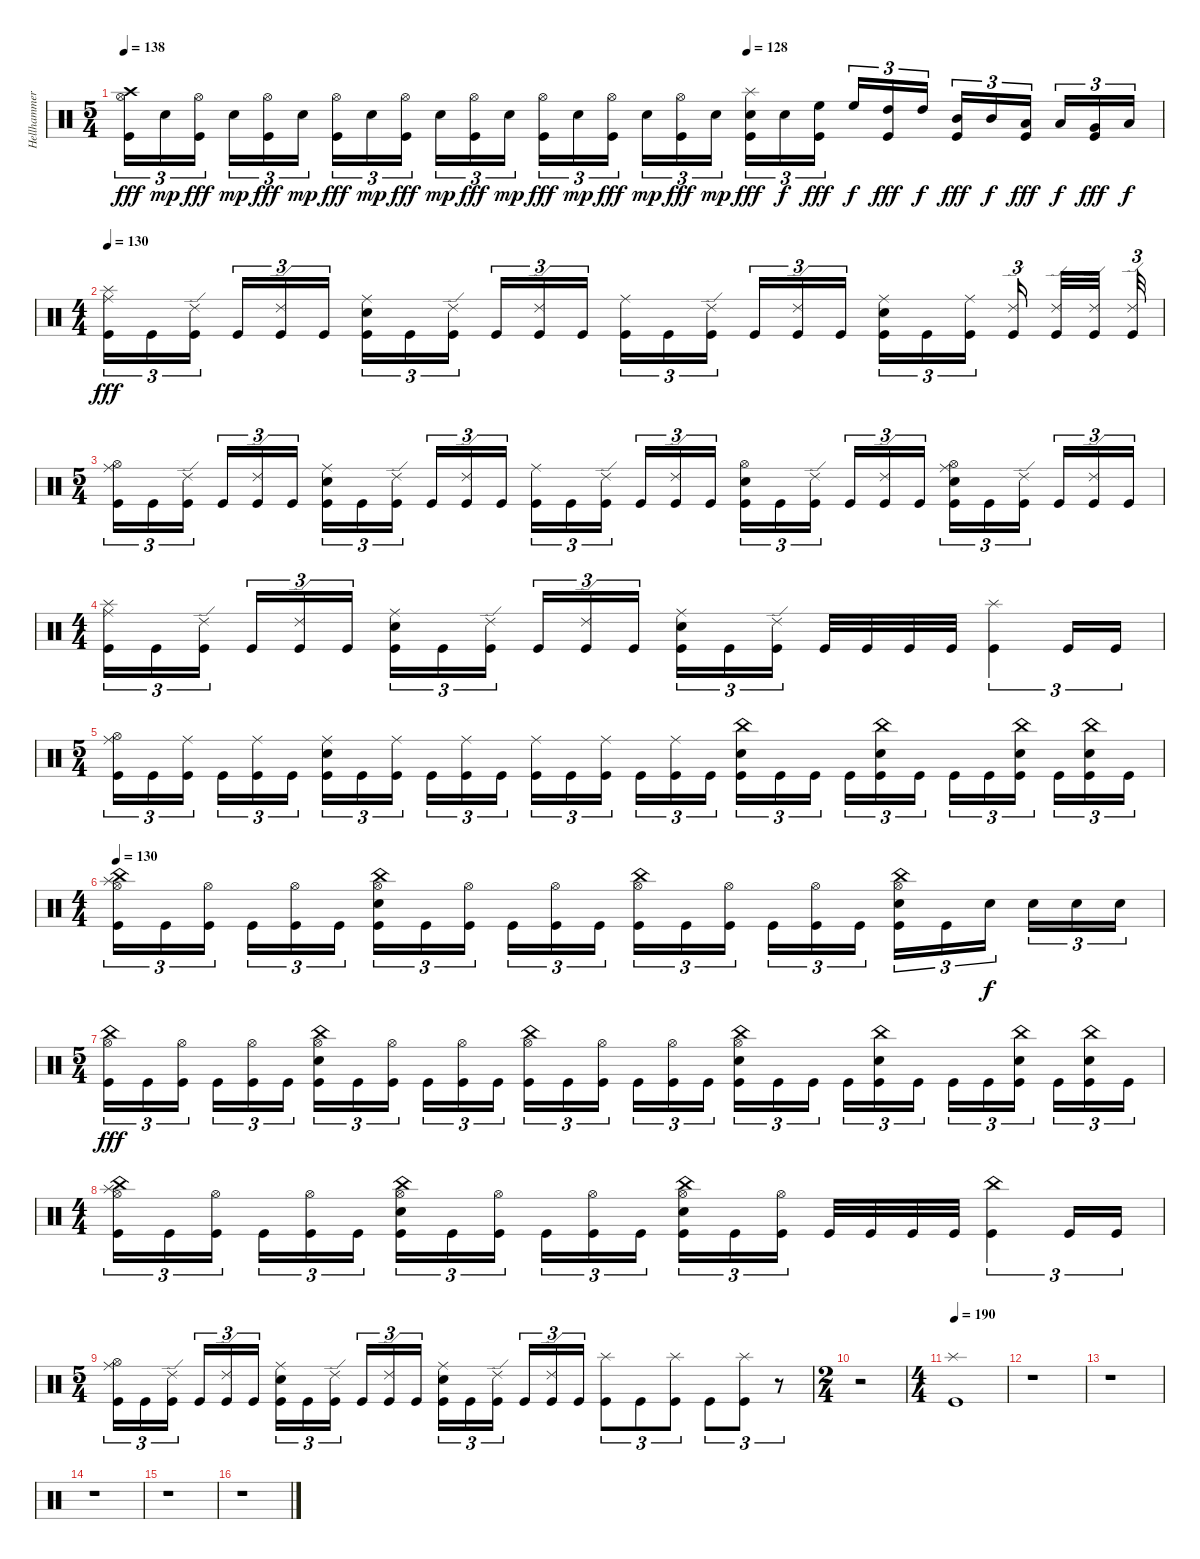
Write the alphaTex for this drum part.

\track ("Hellhammer" "Hellhammer") {instrument percussion}
\staff {score}
\articulation defaults
\ts (5 4)
\tempo 138
\tempo (128 0.6)
\clef neutral
\ks c
("Crash high (hit)" "Hi-Hat (open)" "Kick (hit)").16{tu (3 2) dy fff} "Electric Snare (hit)".16{tu (3 2) dy mp} ("Hi-Hat (open)" "Kick (hit)").16{tu (3 2) dy fff} "Electric Snare (hit)".16{tu (3 2) dy mp} ("Hi-Hat (open)" "Kick (hit)").16{tu (3 2) dy fff} "Electric Snare (hit)".16{tu (3 2) dy mp} ("Hi-Hat (open)" "Kick (hit)").16{tu (3 2) dy fff} "Electric Snare (hit)".16{tu (3 2) dy mp} ("Hi-Hat (open)" "Kick (hit)").16{tu (3 2) dy fff} "Electric Snare (hit)".16{tu (3 2) dy mp} ("Hi-Hat (open)" "Kick (hit)").16{tu (3 2) dy fff} "Electric Snare (hit)".16{tu (3 2) dy mp} ("Hi-Hat (open)" "Kick (hit)").16{tu (3 2) dy fff} "Electric Snare (hit)".16{tu (3 2) dy mp} ("Hi-Hat (open)" "Kick (hit)").16{tu (3 2) dy fff} "Electric Snare (hit)".16{tu (3 2) dy mp} ("Hi-Hat (open)" "Kick (hit)").16{tu (3 2) dy fff} "Electric Snare (hit)".16{tu (3 2) dy mp} ("Splash (hit)" "Electric Snare (hit)" "Kick (hit)").16{tu (3 2) dy fff} "Electric Snare (hit)".16{tu (3 2) dy f} ("High Floor Tom (hit)" "Kick (hit)").16{tu (3 2) dy fff} "High Floor Tom (hit)".16{tu (3 2) dy f} ("High Tom (hit)" "Kick (hit)").16{tu (3 2) dy fff} "High Tom (hit)".16{tu (3 2) dy f} ("Mid Tom (hit)" "Kick (hit)").16{tu (3 2) dy fff} "Mid Tom (hit)".16{tu (3 2) dy f} ("Low Tom (hit)" "Kick (hit)").16{tu (3 2) dy fff} "Low Tom (hit)".16{tu (3 2) dy f} ("Very Low Tom (hit)" "Kick (hit)").16{tu (3 2) dy fff} "Low Floor Tom (hit)".16{tu (3 2) dy f} |
\ts (4 4)
\tempo 130
("Splash (hit)" "Ride (middle)" "Kick (hit)").16{tu (3 2) dy fff} "Kick (hit)".16{tu (3 2)} ("Ride (edge) 2" "Kick (hit)").16{tu (3 2)} "Kick (hit)".16{tu (3 2)} ("Ride (edge) 2" "Kick (hit)").16{tu (3 2)} "Kick (hit)".16{tu (3 2)} ("Ride (middle)" "Electric Snare (hit)" "Kick (hit)").16{tu (3 2)} "Kick (hit)".16{tu (3 2)} ("Ride (edge) 2" "Kick (hit)").16{tu (3 2)} "Kick (hit)".16{tu (3 2)} ("Ride (edge) 2" "Kick (hit)").16{tu (3 2)} "Kick (hit)".16{tu (3 2)} ("Ride (middle)" "Kick (hit)").16{tu (3 2)} "Kick (hit)".16{tu (3 2)} ("Ride (edge) 2" "Kick (hit)").16{tu (3 2)} "Kick (hit)".16{tu (3 2)} ("Ride (edge) 2" "Kick (hit)").16{tu (3 2)} "Kick (hit)".16{tu (3 2)} ("Ride (middle)" "Electric Snare (hit)" "Kick (hit)").16{tu (3 2)} "Kick (hit)".16{tu (3 2)} ("Ride (middle)" "Kick (hit)").16{tu (3 2)} ("Ride (edge) 2" "Kick (hit)").16{tu (3 2)} ("Ride (edge) 2" "Kick (hit)").32 ("Ride (edge) 2" "Kick (hit)").32 ("Ride (edge) 2" "Kick (hit)").32{tu (3 2)} |
\ts (5 4)
("Ride (middle)" "Hi-Hat (open)" "Kick (hit)").16{tu (3 2)} "Kick (hit)".16{tu (3 2)} ("Ride (edge) 2" "Kick (hit)").16{tu (3 2)} "Kick (hit)".16{tu (3 2)} ("Ride (edge) 2" "Kick (hit)").16{tu (3 2)} "Kick (hit)".16{tu (3 2)} ("Ride (middle)" "Electric Snare (hit)" "Kick (hit)").16{tu (3 2)} "Kick (hit)".16{tu (3 2)} ("Ride (edge) 2" "Kick (hit)").16{tu (3 2)} "Kick (hit)".16{tu (3 2)} ("Ride (edge) 2" "Kick (hit)").16{tu (3 2)} "Kick (hit)".16{tu (3 2)} ("Ride (middle)" "Kick (hit)").16{tu (3 2)} "Kick (hit)".16{tu (3 2)} ("Ride (edge) 2" "Kick (hit)").16{tu (3 2)} "Kick (hit)".16{tu (3 2)} ("Ride (edge) 2" "Kick (hit)").16{tu (3 2)} "Kick (hit)".16{tu (3 2)} ("Hi-Hat (open)" "Electric Snare (hit)" "Kick (hit)").16{tu (3 2)} "Kick (hit)".16{tu (3 2)} ("Ride (edge) 2" "Kick (hit)").16{tu (3 2)} "Kick (hit)".16{tu (3 2)} ("Ride (edge) 2" "Kick (hit)").16{tu (3 2)} "Kick (hit)".16{tu (3 2)} ("Ride (middle)" "Hi-Hat (open)" "Electric Snare (hit)" "Kick (hit)").16{tu (3 2)} "Kick (hit)".16{tu (3 2)} ("Ride (edge) 2" "Kick (hit)").16{tu (3 2)} "Kick (hit)".16{tu (3 2)} ("Ride (edge) 2" "Kick (hit)").16{tu (3 2)} "Kick (hit)".16{tu (3 2)} |
\ts (4 4)
("Splash (hit)" "Ride (middle)" "Kick (hit)").16{tu (3 2)} "Kick (hit)".16{tu (3 2)} ("Ride (edge) 2" "Kick (hit)").16{tu (3 2)} "Kick (hit)".16{tu (3 2)} ("Ride (edge) 2" "Kick (hit)").16{tu (3 2)} "Kick (hit)".16{tu (3 2)} ("Ride (middle)" "Electric Snare (hit)" "Kick (hit)").16{tu (3 2)} "Kick (hit)".16{tu (3 2)} ("Ride (edge) 2" "Kick (hit)").16{tu (3 2)} "Kick (hit)".16{tu (3 2)} ("Ride (edge) 2" "Kick (hit)").16{tu (3 2)} "Kick (hit)".16{tu (3 2)} ("Ride (middle)" "Electric Snare (hit)" "Kick (hit)").16{tu (3 2)} "Kick (hit)".16{tu (3 2)} ("Ride (edge) 2" "Kick (hit)").16{tu (3 2)} "Kick (hit)".32 "Kick (hit)".32 "Kick (hit)".32 "Kick (hit)".32 ("Splash (hit)" "Kick (hit)").4{tu (3 2)} "Kick (hit)".16{tu (3 2)} "Kick (hit)".16{tu (3 2)} |
\ts (5 4)
("Ride (middle)" "Hi-Hat (open)" "Kick (hit)").16{tu (3 2)} "Kick (hit)".16{tu (3 2)} ("Ride (middle)" "Kick (hit)").16{tu (3 2)} "Kick (hit)".16{tu (3 2)} ("Ride (middle)" "Kick (hit)").16{tu (3 2)} "Kick (hit)".16{tu (3 2)} ("Ride (middle)" "Electric Snare (hit)" "Kick (hit)").16{tu (3 2)} "Kick (hit)".16{tu (3 2)} ("Ride (middle)" "Kick (hit)").16{tu (3 2)} "Kick (hit)".16{tu (3 2)} ("Ride (middle)" "Kick (hit)").16{tu (3 2)} "Kick (hit)".16{tu (3 2)} ("Ride (middle)" "Kick (hit)").16{tu (3 2)} "Kick (hit)".16{tu (3 2)} ("Ride (middle)" "Kick (hit)").16{tu (3 2)} "Kick (hit)".16{tu (3 2)} ("Ride (middle)" "Kick (hit)").16{tu (3 2)} "Kick (hit)".16{tu (3 2)} ("China (hit)" "Electric Snare (hit)" "Kick (hit)").16{tu (3 2)} "Kick (hit)".16{tu (3 2)} "Kick (hit)".16{tu (3 2)} "Kick (hit)".16{tu (3 2)} ("China (hit)" "Electric Snare (hit)" "Kick (hit)").16{tu (3 2)} "Kick (hit)".16{tu (3 2)} "Kick (hit)".16{tu (3 2)} "Kick (hit)".16{tu (3 2)} ("China (hit)" "Electric Snare (hit)" "Kick (hit)").16{tu (3 2)} "Kick (hit)".16{tu (3 2)} ("China (hit)" "Electric Snare (hit)" "Kick (hit)").16{tu (3 2)} "Kick (hit)".16{tu (3 2)} |
\ts (4 4)
\tempo 130
("Splash (hit)" "Hi-Hat (open)" "China (hit)" "Kick (hit)").16{tu (3 2)} "Kick (hit)".16{tu (3 2)} ("Hi-Hat (open)" "Kick (hit)").16{tu (3 2)} "Kick (hit)".16{tu (3 2)} ("Hi-Hat (open)" "Kick (hit)").16{tu (3 2)} "Kick (hit)".16{tu (3 2)} ("China (hit)" "Hi-Hat (open)" "Electric Snare (hit)" "Kick (hit)").16{tu (3 2)} "Kick (hit)".16{tu (3 2)} ("Hi-Hat (open)" "Kick (hit)").16{tu (3 2)} "Kick (hit)".16{tu (3 2)} ("Hi-Hat (open)" "Kick (hit)").16{tu (3 2)} "Kick (hit)".16{tu (3 2)} ("China (hit)" "Hi-Hat (open)" "Kick (hit)").16{tu (3 2)} "Kick (hit)".16{tu (3 2)} ("Hi-Hat (open)" "Kick (hit)").16{tu (3 2)} "Kick (hit)".16{tu (3 2)} ("Hi-Hat (open)" "Kick (hit)").16{tu (3 2)} "Kick (hit)".16{tu (3 2)} ("China (hit)" "Hi-Hat (open)" "Electric Snare (hit)" "Kick (hit)").16{tu (3 2)} "Kick (hit)".16{tu (3 2)} "Electric Snare (hit)".16{tu (3 2) dy f} "Electric Snare (hit)".16{tu (3 2)} "Electric Snare (hit)".16{tu (3 2)} "Electric Snare (hit)".16{tu (3 2)} |
\ts (5 4)
("China (hit)" "Hi-Hat (open)" "Kick (hit)").16{tu (3 2) dy fff} "Kick (hit)".16{tu (3 2)} ("Hi-Hat (open)" "Kick (hit)").16{tu (3 2)} "Kick (hit)".16{tu (3 2)} ("Hi-Hat (open)" "Kick (hit)").16{tu (3 2)} "Kick (hit)".16{tu (3 2)} ("China (hit)" "Hi-Hat (open)" "Electric Snare (hit)" "Kick (hit)").16{tu (3 2)} "Kick (hit)".16{tu (3 2)} ("Hi-Hat (open)" "Kick (hit)").16{tu (3 2)} "Kick (hit)".16{tu (3 2)} ("Hi-Hat (open)" "Kick (hit)").16{tu (3 2)} "Kick (hit)".16{tu (3 2)} ("China (hit)" "Hi-Hat (open)" "Kick (hit)").16{tu (3 2)} "Kick (hit)".16{tu (3 2)} ("Hi-Hat (open)" "Kick (hit)").16{tu (3 2)} "Kick (hit)".16{tu (3 2)} ("Hi-Hat (open)" "Kick (hit)").16{tu (3 2)} "Kick (hit)".16{tu (3 2)} ("China (hit)" "Hi-Hat (open)" "Electric Snare (hit)" "Kick (hit)").16{tu (3 2)} "Kick (hit)".16{tu (3 2)} "Kick (hit)".16{tu (3 2)} "Kick (hit)".16{tu (3 2)} ("China (hit)" "Electric Snare (hit)" "Kick (hit)").16{tu (3 2)} "Kick (hit)".16{tu (3 2)} "Kick (hit)".16{tu (3 2)} "Kick (hit)".16{tu (3 2)} ("China (hit)" "Electric Snare (hit)" "Kick (hit)").16{tu (3 2)} "Kick (hit)".16{tu (3 2)} ("China (hit)" "Electric Snare (hit)" "Kick (hit)").16{tu (3 2)} "Kick (hit)".16{tu (3 2)} |
\ts (4 4)
("Splash (hit)" "China (hit)" "Hi-Hat (open)" "Kick (hit)").16{tu (3 2)} "Kick (hit)".16{tu (3 2)} ("Hi-Hat (open)" "Kick (hit)").16{tu (3 2)} "Kick (hit)".16{tu (3 2)} ("Hi-Hat (open)" "Kick (hit)").16{tu (3 2)} "Kick (hit)".16{tu (3 2)} ("Hi-Hat (open)" "China (hit)" "Electric Snare (hit)" "Kick (hit)").16{tu (3 2)} "Kick (hit)".16{tu (3 2)} ("Hi-Hat (open)" "Kick (hit)").16{tu (3 2)} "Kick (hit)".16{tu (3 2)} ("Hi-Hat (open)" "Kick (hit)").16{tu (3 2)} "Kick (hit)".16{tu (3 2)} ("Hi-Hat (open)" "China (hit)" "Electric Snare (hit)" "Kick (hit)").16{tu (3 2)} "Kick (hit)".16{tu (3 2)} ("Hi-Hat (open)" "Kick (hit)").16{tu (3 2)} "Kick (hit)".32 "Kick (hit)".32 "Kick (hit)".32 "Kick (hit)".32 ("China (hit)" "Kick (hit)").4{tu (3 2)} "Kick (hit)".16{tu (3 2)} "Kick (hit)".16{tu (3 2)} |
\ts (5 4)
("Ride (middle)" "Hi-Hat (open)" "Kick (hit)").16{tu (3 2)} "Kick (hit)".16{tu (3 2)} ("Ride (edge) 2" "Kick (hit)").16{tu (3 2)} "Kick (hit)".16{tu (3 2)} ("Ride (edge) 2" "Kick (hit)").16{tu (3 2)} "Kick (hit)".16{tu (3 2)} ("Ride (middle)" "Electric Snare (hit)" "Kick (hit)").16{tu (3 2)} "Kick (hit)".16{tu (3 2)} ("Ride (edge) 2" "Kick (hit)").16{tu (3 2)} "Kick (hit)".16{tu (3 2)} ("Ride (edge) 2" "Kick (hit)").16{tu (3 2)} "Kick (hit)".16{tu (3 2)} ("Ride (middle)" "Electric Snare (hit)" "Kick (hit)").16{tu (3 2)} "Kick (hit)".16{tu (3 2)} ("Ride (edge) 2" "Kick (hit)").16{tu (3 2)} "Kick (hit)".16{tu (3 2)} ("Ride (edge) 2" "Kick (hit)").16{tu (3 2)} "Kick (hit)".16{tu (3 2)} ("Splash (hit)" "Kick (hit)").8{tu (3 2)} "Kick (hit)".8{tu (3 2)} ("Splash (hit)" "Kick (hit)").8{tu (3 2)} "Kick (hit)".8{tu (3 2)} ("Splash (hit)" "Kick (hit)").8{tu (3 2)} r.8{tu (3 2)} |
\ts (2 4)
r.2 |
\ts (4 4)
\tempo 190
("Splash (hit)" "Kick (hit)").1 |
r.1 |
r.1 |
r.1 |
r.1 |
r.1
